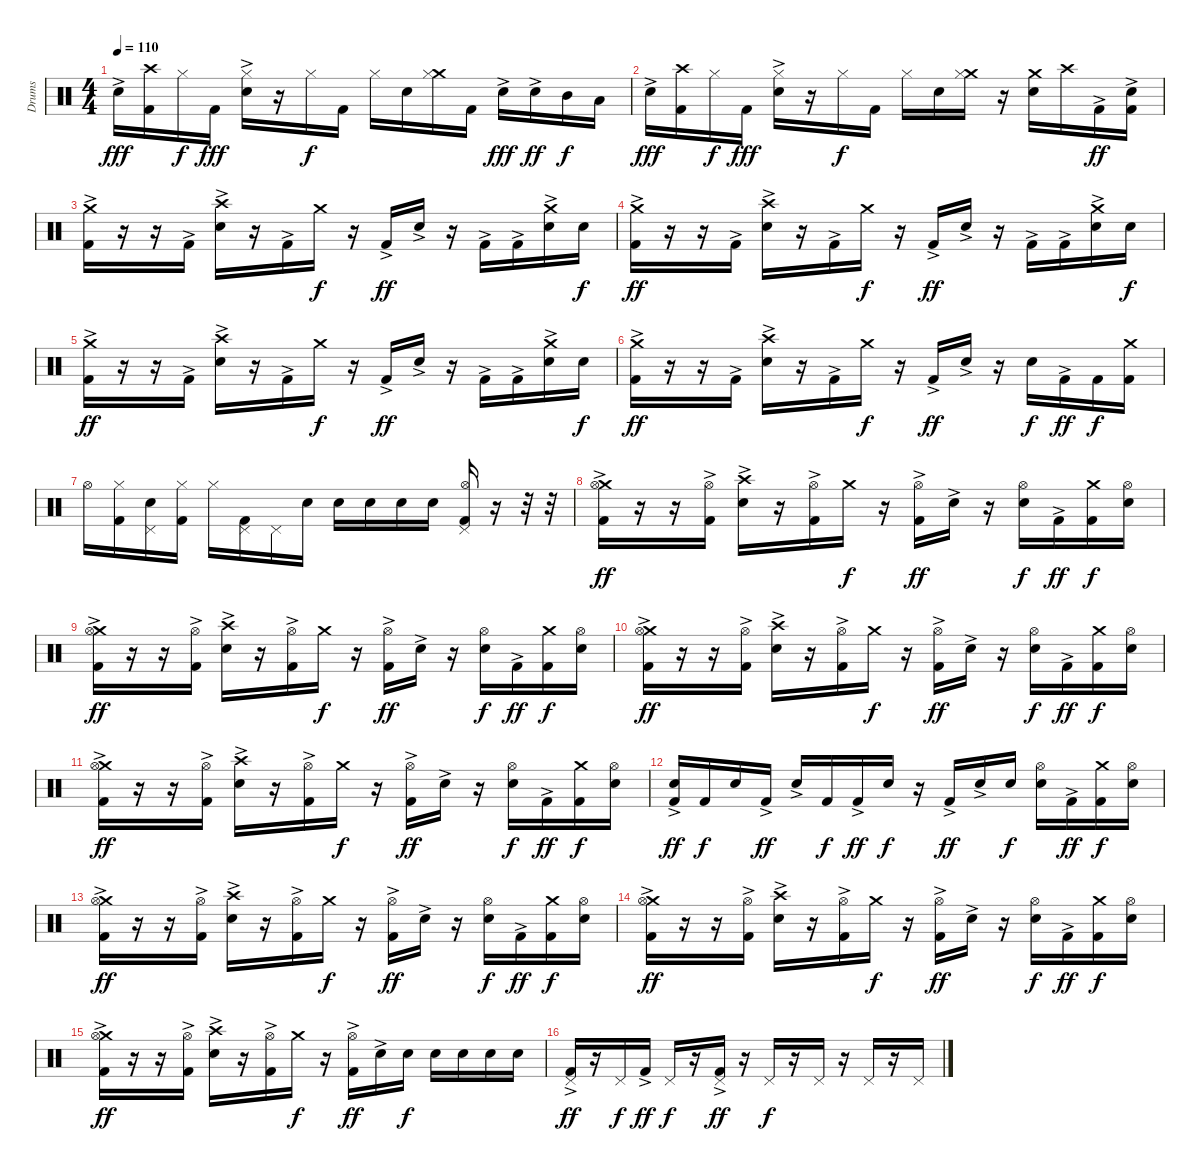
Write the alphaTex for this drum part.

\track ("Drums" "Drums") {instrument percussion}
\staff {score}
\articulation defaults
\ts (4 4)
\tempo 110
\clef neutral
\ks c "Electric Snare (hit)"{ac}.16{dy fff}
("Crash high (hit)" "Kick (hit) 2").16 "Hi-Hat (closed)".16{dy f} "Kick (hit) 2".16{dy fff} ("Hi-Hat (closed)" "Snare (hit) 2"{ac}).16 r.16 "Hi-Hat (closed)".16{dy f} "Kick (hit) 2".16 "Hi-Hat (closed)".16 "Snare (hit) 2".16 ("Crash medium (hit)" "Hi-Hat (closed)").16 "Kick (hit) 2".16 "Electric Snare (hit)"{ac}.16{dy fff} "Electric Snare (hit)"{ac}.16{dy ff} "Mid Tom (hit)".16{dy f} "Low Tom (hit)".16 |
"Electric Snare (hit)"{ac}.16{dy fff} ("Crash high (hit)" "Kick (hit) 2").16 "Hi-Hat (closed)".16{dy f} "Kick (hit) 2".16{dy fff} ("Hi-Hat (closed)" "Snare (hit) 2"{ac}).16 r.16 "Hi-Hat (closed)".16{dy f} "Kick (hit) 2".16 "Hi-Hat (closed)".16 "Snare (hit) 2".16 ("Crash medium (hit)" "Hi-Hat (closed)").16 r.16 ("Crash medium (hit)" "Electric Snare (hit)").16 "Crash high (hit)".16 "Kick (hit) 2"{ac}.16{dy ff} ("Electric Snare (hit)" "Kick (hit) 2"{ac}).16 |
("Crash medium (hit)" "Kick (hit) 2"{ac}).16 r.16 r.16 "Kick (hit) 2"{ac}.16 ("Crash high (hit)" "Snare (hit) 2"{ac}).16 r.16 "Kick (hit) 2"{ac}.16 "Crash medium (hit)".16{dy f} r.16 "Kick (hit) 2"{ac}.16{dy ff} "Snare (hit) 2"{ac}.16 r.16 "Kick (hit) 2"{ac}.16 "Kick (hit) 2"{ac}.16 ("Crash medium (hit)" "Snare (hit) 2"{ac}).16 "Electric Snare (hit)".16{dy f} |
("Crash medium (hit)" "Kick (hit) 2"{ac}).16{dy ff} r.16 r.16 "Kick (hit) 2"{ac}.16 ("Crash high (hit)" "Snare (hit) 2"{ac}).16 r.16 "Kick (hit) 2"{ac}.16 "Crash medium (hit)".16{dy f} r.16 "Kick (hit) 2"{ac}.16{dy ff} "Snare (hit) 2"{ac}.16 r.16 "Kick (hit) 2"{ac}.16 "Kick (hit) 2"{ac}.16 ("Crash medium (hit)" "Snare (hit) 2"{ac}).16 "Electric Snare (hit)".16{dy f} |
("Crash medium (hit)" "Kick (hit) 2"{ac}).16{dy ff} r.16 r.16 "Kick (hit) 2"{ac}.16 ("Crash high (hit)" "Snare (hit) 2"{ac}).16 r.16 "Kick (hit) 2"{ac}.16 "Crash medium (hit)".16{dy f} r.16 "Kick (hit) 2"{ac}.16{dy ff} "Snare (hit) 2"{ac}.16 r.16 "Kick (hit) 2"{ac}.16 "Kick (hit) 2"{ac}.16 ("Crash medium (hit)" "Snare (hit) 2"{ac}).16 "Electric Snare (hit)".16{dy f} |
("Crash medium (hit)" "Kick (hit) 2"{ac}).16{dy ff} r.16 r.16 "Kick (hit) 2"{ac}.16 ("Crash high (hit)" "Snare (hit) 2"{ac}).16 r.16 "Kick (hit) 2"{ac}.16 "Crash medium (hit)".16{dy f} r.16 "Kick (hit) 2"{ac}.16{dy ff} "Snare (hit) 2"{ac}.16 r.16 "Snare (hit) 2".16{dy f} "Kick (hit) 2"{ac}.16{dy ff} "Kick (hit) 2".16{dy f} ("Crash medium (hit)" "Kick (hit) 2").16 |
"Hi-Hat (open)".16 ("Hi-Hat (closed)" "Kick (hit) 2").16 ("Pedal Hi-Hat (hit)" "Snare (hit) 2").16 ("Hi-Hat (closed)" "Kick (hit) 2").16 "Hi-Hat (closed)".16 ("Pedal Hi-Hat (hit)" "Kick (hit) 2").16 "Pedal Hi-Hat (hit)".16 "Electric Snare (hit)".16 "Electric Snare (hit)".16 "Electric Snare (hit)".16 "Electric Snare (hit)".16 "Electric Snare (hit)".16 ("Hi-Hat (open)" "Pedal Hi-Hat (hit)" "Kick (hit) 2").16 r.16 r.32 r.32 |
("Crash medium (hit)" "Hi-Hat (open)" "Kick (hit) 2"{ac}).16{dy ff} r.16 r.16 ("Hi-Hat (open)" "Kick (hit) 2"{ac}).16 ("Crash high (hit)" "Snare (hit) 2"{ac}).16 r.16 ("Hi-Hat (open)" "Kick (hit) 2"{ac}).16 "Crash medium (hit)".16{dy f} r.16 ("Hi-Hat (open)" "Kick (hit) 2"{ac}).16{dy ff} "Snare (hit) 2"{ac}.16 r.16 ("Hi-Hat (open)" "Snare (hit) 2").16{dy f} "Kick (hit) 2"{ac}.16{dy ff} ("Crash medium (hit)" "Kick (hit) 2").16{dy f} ("Hi-Hat (open)" "Snare (hit) 2").16 |
("Crash medium (hit)" "Hi-Hat (open)" "Kick (hit) 2"{ac}).16{dy ff} r.16 r.16 ("Hi-Hat (open)" "Kick (hit) 2"{ac}).16 ("Crash high (hit)" "Snare (hit) 2"{ac}).16 r.16 ("Hi-Hat (open)" "Kick (hit) 2"{ac}).16 "Crash medium (hit)".16{dy f} r.16 ("Hi-Hat (open)" "Kick (hit) 2"{ac}).16{dy ff} "Snare (hit) 2"{ac}.16 r.16 ("Hi-Hat (open)" "Snare (hit) 2").16{dy f} "Kick (hit) 2"{ac}.16{dy ff} ("Crash medium (hit)" "Kick (hit) 2").16{dy f} ("Hi-Hat (open)" "Snare (hit) 2").16 |
("Crash medium (hit)" "Hi-Hat (open)" "Kick (hit) 2"{ac}).16{dy ff} r.16 r.16 ("Hi-Hat (open)" "Kick (hit) 2"{ac}).16 ("Crash high (hit)" "Snare (hit) 2"{ac}).16 r.16 ("Hi-Hat (open)" "Kick (hit) 2"{ac}).16 "Crash medium (hit)".16{dy f} r.16 ("Hi-Hat (open)" "Kick (hit) 2"{ac}).16{dy ff} "Snare (hit) 2"{ac}.16 r.16 ("Hi-Hat (open)" "Snare (hit) 2").16{dy f} "Kick (hit) 2"{ac}.16{dy ff} ("Crash medium (hit)" "Kick (hit) 2").16{dy f} ("Hi-Hat (open)" "Snare (hit) 2").16 |
("Crash medium (hit)" "Hi-Hat (open)" "Kick (hit) 2"{ac}).16{dy ff} r.16 r.16 ("Hi-Hat (open)" "Kick (hit) 2"{ac}).16 ("Crash high (hit)" "Snare (hit) 2"{ac}).16 r.16 ("Hi-Hat (open)" "Kick (hit) 2"{ac}).16 "Crash medium (hit)".16{dy f} r.16 ("Hi-Hat (open)" "Kick (hit) 2"{ac}).16{dy ff} "Snare (hit) 2"{ac}.16 r.16 ("Hi-Hat (open)" "Snare (hit) 2").16{dy f} "Kick (hit) 2"{ac}.16{dy ff} ("Crash medium (hit)" "Kick (hit) 2").16{dy f} ("Hi-Hat (open)" "Snare (hit) 2").16 |
("Electric Snare (hit)" "Kick (hit) 2"{ac}).16{dy ff} "Kick (hit) 2".16{dy f} "Electric Snare (hit)".16 "Kick (hit) 2"{ac}.16{dy ff} "Electric Snare (hit)"{ac}.16 "Kick (hit) 2".16{dy f} "Kick (hit) 2"{ac}.16{dy ff} "Electric Snare (hit)".16{dy f} r.16 "Kick (hit) 2"{ac}.16{dy ff} "Electric Snare (hit)"{ac}.16 "Electric Snare (hit)".16{dy f} ("Hi-Hat (open)" "Snare (hit) 2").16 "Kick (hit) 2"{ac}.16{dy ff} ("Crash medium (hit)" "Kick (hit) 2").16{dy f} ("Hi-Hat (open)" "Snare (hit) 2").16 |
("Crash medium (hit)" "Hi-Hat (open)" "Kick (hit) 2"{ac}).16{dy ff} r.16 r.16 ("Hi-Hat (open)" "Kick (hit) 2"{ac}).16 ("Crash high (hit)" "Snare (hit) 2"{ac}).16 r.16 ("Hi-Hat (open)" "Kick (hit) 2"{ac}).16 "Crash medium (hit)".16{dy f} r.16 ("Hi-Hat (open)" "Kick (hit) 2"{ac}).16{dy ff} "Snare (hit) 2"{ac}.16 r.16 ("Hi-Hat (open)" "Snare (hit) 2").16{dy f} "Kick (hit) 2"{ac}.16{dy ff} ("Crash medium (hit)" "Kick (hit) 2").16{dy f} ("Hi-Hat (open)" "Snare (hit) 2").16 |
("Crash medium (hit)" "Hi-Hat (open)" "Kick (hit) 2"{ac}).16{dy ff} r.16 r.16 ("Hi-Hat (open)" "Kick (hit) 2"{ac}).16 ("Crash high (hit)" "Snare (hit) 2"{ac}).16 r.16 ("Hi-Hat (open)" "Kick (hit) 2"{ac}).16 "Crash medium (hit)".16{dy f} r.16 ("Hi-Hat (open)" "Kick (hit) 2"{ac}).16{dy ff} "Snare (hit) 2"{ac}.16 r.16 ("Hi-Hat (open)" "Snare (hit) 2").16{dy f} "Kick (hit) 2"{ac}.16{dy ff} ("Crash medium (hit)" "Kick (hit) 2").16{dy f} ("Hi-Hat (open)" "Snare (hit) 2").16 |
("Crash medium (hit)" "Hi-Hat (open)" "Kick (hit) 2"{ac}).16{dy ff} r.16 r.16 ("Hi-Hat (open)" "Kick (hit) 2"{ac}).16 ("Crash high (hit)" "Snare (hit) 2"{ac}).16 r.16 ("Hi-Hat (open)" "Kick (hit) 2"{ac}).16 "Crash medium (hit)".16{dy f} r.16 ("Hi-Hat (open)" "Kick (hit) 2"{ac}).16{dy ff} "Snare (hit) 2"{ac}.16 "Electric Snare (hit)".16{dy f} "Snare (hit) 2".16 "Electric Snare (hit)".16 "Electric Snare (hit)".16 "Electric Snare (hit)".16 |
("Pedal Hi-Hat (hit)" "Kick (hit) 2"{ac}).16{dy ff} r.16 "Pedal Hi-Hat (hit)".16{dy f} "Kick (hit) 2"{ac}.16{dy ff} "Pedal Hi-Hat (hit)".16{dy f} r.16 ("Pedal Hi-Hat (hit)" "Kick (hit) 2"{ac}).16{dy ff} r.16 "Pedal Hi-Hat (hit)".16{dy f} r.16 "Pedal Hi-Hat (hit)".16 r.16 "Pedal Hi-Hat (hit)".16 r.16 "Pedal Hi-Hat (hit)".16
